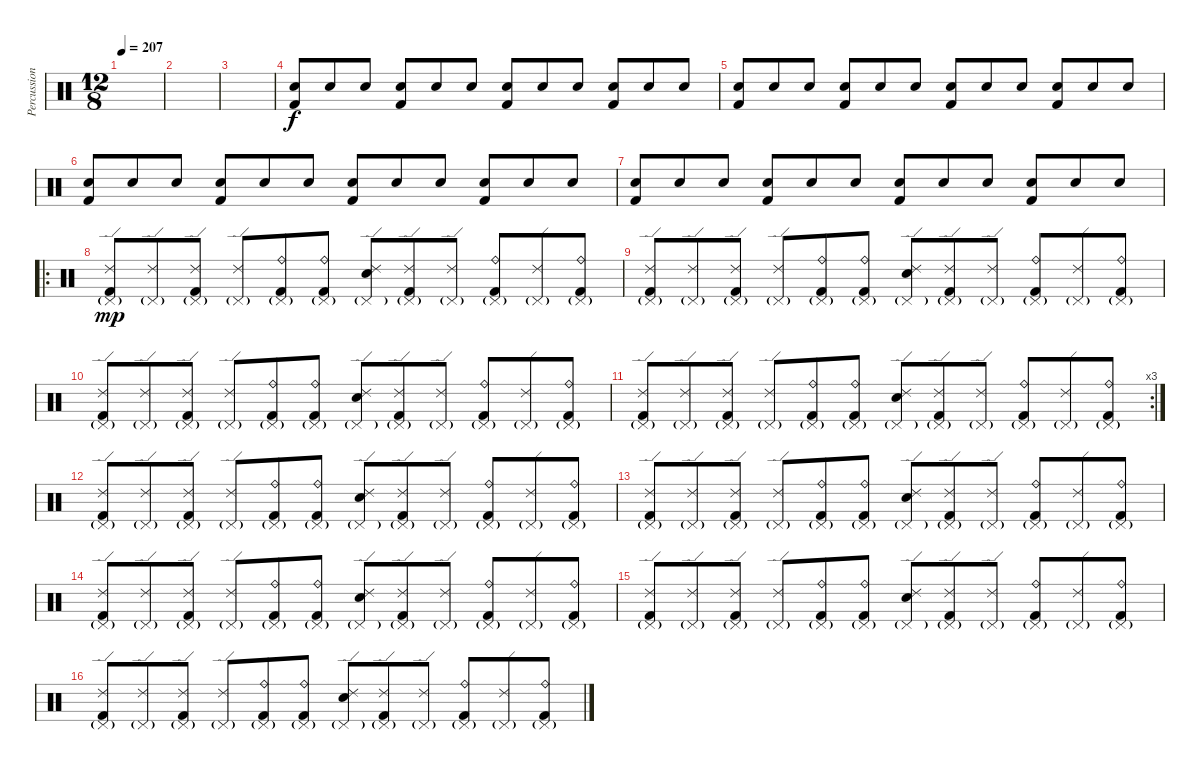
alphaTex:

\track ("Percussion" "Percussion") {instrument percussion}
\staff {score}
\articulation defaults
\ts (12 8)
\tempo 207
\clef neutral
\ks c
|
|
|
("Electric Snare (hit)" "Kick (hit) 2").8 "Electric Snare (hit)".8 "Electric Snare (hit)".8 ("Electric Snare (hit)" "Kick (hit) 2").8 "Electric Snare (hit)".8 "Electric Snare (hit)".8 ("Electric Snare (hit)" "Kick (hit) 2").8 "Electric Snare (hit)".8 "Electric Snare (hit)".8 ("Electric Snare (hit)" "Kick (hit) 2").8 "Electric Snare (hit)".8 "Electric Snare (hit)".8 |
("Electric Snare (hit)" "Kick (hit) 2").8 "Electric Snare (hit)".8 "Electric Snare (hit)".8 ("Electric Snare (hit)" "Kick (hit) 2").8 "Electric Snare (hit)".8 "Electric Snare (hit)".8 ("Electric Snare (hit)" "Kick (hit) 2").8 "Electric Snare (hit)".8 "Electric Snare (hit)".8 ("Electric Snare (hit)" "Kick (hit) 2").8 "Electric Snare (hit)".8 "Electric Snare (hit)".8 |
("Electric Snare (hit)" "Kick (hit) 2").8 "Electric Snare (hit)".8 "Electric Snare (hit)".8 ("Electric Snare (hit)" "Kick (hit) 2").8 "Electric Snare (hit)".8 "Electric Snare (hit)".8 ("Electric Snare (hit)" "Kick (hit) 2").8 "Electric Snare (hit)".8 "Electric Snare (hit)".8 ("Electric Snare (hit)" "Kick (hit) 2").8 "Electric Snare (hit)".8 "Electric Snare (hit)".8 |
("Electric Snare (hit)" "Kick (hit) 2").8 "Electric Snare (hit)".8 "Electric Snare (hit)".8 ("Electric Snare (hit)" "Kick (hit) 2").8 "Electric Snare (hit)".8 "Electric Snare (hit)".8 ("Electric Snare (hit)" "Kick (hit) 2").8 "Electric Snare (hit)".8 "Electric Snare (hit)".8 ("Electric Snare (hit)" "Kick (hit) 2").8 "Electric Snare (hit)".8 "Electric Snare (hit)".8 |
\ro
("Ride (edge) 2" "Pedal Hi-Hat (hit)"{g} "Kick (hit) 2").8{dy mp} ("Ride (edge) 2" "Pedal Hi-Hat (hit)"{g}).8 ("Ride (edge) 2" "Pedal Hi-Hat (hit)"{g} "Kick (hit) 2").8 ("Ride (edge) 2" "Pedal Hi-Hat (hit)"{g}).8 ("Ride (bell)" "Pedal Hi-Hat (hit)"{g} "Kick (hit) 2").8 ("Ride (bell)" "Pedal Hi-Hat (hit)"{g} "Kick (hit) 2").8 ("Ride (edge) 2" "Pedal Hi-Hat (hit)"{g} "Electric Snare (hit)").8 ("Ride (edge) 2" "Pedal Hi-Hat (hit)"{g} "Kick (hit) 2").8 ("Ride (edge) 2" "Pedal Hi-Hat (hit)"{g}).8 ("Ride (bell)" "Pedal Hi-Hat (hit)"{g} "Kick (hit) 2").8 ("Ride (edge) 2" "Pedal Hi-Hat (hit)"{g}).8 ("Ride (bell)" "Pedal Hi-Hat (hit)"{g} "Kick (hit) 2").8 |
("Ride (edge) 2" "Pedal Hi-Hat (hit)"{g} "Kick (hit) 2").8 ("Ride (edge) 2" "Pedal Hi-Hat (hit)"{g}).8 ("Ride (edge) 2" "Pedal Hi-Hat (hit)"{g} "Kick (hit) 2").8 ("Ride (edge) 2" "Pedal Hi-Hat (hit)"{g}).8 ("Ride (bell)" "Pedal Hi-Hat (hit)"{g} "Kick (hit) 2").8 ("Ride (bell)" "Pedal Hi-Hat (hit)"{g} "Kick (hit) 2").8 ("Ride (edge) 2" "Pedal Hi-Hat (hit)"{g} "Electric Snare (hit)").8 ("Ride (edge) 2" "Pedal Hi-Hat (hit)"{g} "Kick (hit) 2").8 ("Ride (edge) 2" "Pedal Hi-Hat (hit)"{g}).8 ("Ride (bell)" "Pedal Hi-Hat (hit)"{g} "Kick (hit) 2").8 ("Ride (edge) 2" "Pedal Hi-Hat (hit)"{g}).8 ("Ride (bell)" "Pedal Hi-Hat (hit)"{g} "Kick (hit) 2").8 |
("Ride (edge) 2" "Pedal Hi-Hat (hit)"{g} "Kick (hit) 2").8 ("Ride (edge) 2" "Pedal Hi-Hat (hit)"{g}).8 ("Ride (edge) 2" "Pedal Hi-Hat (hit)"{g} "Kick (hit) 2").8 ("Ride (edge) 2" "Pedal Hi-Hat (hit)"{g}).8 ("Ride (bell)" "Pedal Hi-Hat (hit)"{g} "Kick (hit) 2").8 ("Ride (bell)" "Pedal Hi-Hat (hit)"{g} "Kick (hit) 2").8 ("Ride (edge) 2" "Pedal Hi-Hat (hit)"{g} "Electric Snare (hit)").8 ("Ride (edge) 2" "Pedal Hi-Hat (hit)"{g} "Kick (hit) 2").8 ("Ride (edge) 2" "Pedal Hi-Hat (hit)"{g}).8 ("Ride (bell)" "Pedal Hi-Hat (hit)"{g} "Kick (hit) 2").8 ("Ride (edge) 2" "Pedal Hi-Hat (hit)"{g}).8 ("Ride (bell)" "Pedal Hi-Hat (hit)"{g} "Kick (hit) 2").8 |
\rc 3
("Ride (edge) 2" "Pedal Hi-Hat (hit)"{g} "Kick (hit) 2").8 ("Ride (edge) 2" "Pedal Hi-Hat (hit)"{g}).8 ("Ride (edge) 2" "Pedal Hi-Hat (hit)"{g} "Kick (hit) 2").8 ("Ride (edge) 2" "Pedal Hi-Hat (hit)"{g}).8 ("Ride (bell)" "Pedal Hi-Hat (hit)"{g} "Kick (hit) 2").8 ("Ride (bell)" "Pedal Hi-Hat (hit)"{g} "Kick (hit) 2").8 ("Ride (edge) 2" "Pedal Hi-Hat (hit)"{g} "Electric Snare (hit)").8 ("Ride (edge) 2" "Pedal Hi-Hat (hit)"{g} "Kick (hit) 2").8 ("Ride (edge) 2" "Pedal Hi-Hat (hit)"{g}).8 ("Ride (bell)" "Pedal Hi-Hat (hit)"{g} "Kick (hit) 2").8 ("Ride (edge) 2" "Pedal Hi-Hat (hit)"{g}).8 ("Ride (bell)" "Pedal Hi-Hat (hit)"{g} "Kick (hit) 2").8 |
("Ride (edge) 2" "Pedal Hi-Hat (hit)"{g} "Kick (hit) 2").8 ("Ride (edge) 2" "Pedal Hi-Hat (hit)"{g}).8 ("Ride (edge) 2" "Pedal Hi-Hat (hit)"{g} "Kick (hit) 2").8 ("Ride (edge) 2" "Pedal Hi-Hat (hit)"{g}).8 ("Ride (bell)" "Pedal Hi-Hat (hit)"{g} "Kick (hit) 2").8 ("Ride (bell)" "Pedal Hi-Hat (hit)"{g} "Kick (hit) 2").8 ("Ride (edge) 2" "Pedal Hi-Hat (hit)"{g} "Electric Snare (hit)").8 ("Ride (edge) 2" "Pedal Hi-Hat (hit)"{g} "Kick (hit) 2").8 ("Ride (edge) 2" "Pedal Hi-Hat (hit)"{g}).8 ("Ride (bell)" "Pedal Hi-Hat (hit)"{g} "Kick (hit) 2").8 ("Ride (edge) 2" "Pedal Hi-Hat (hit)"{g}).8 ("Ride (bell)" "Pedal Hi-Hat (hit)"{g} "Kick (hit) 2").8 |
("Ride (edge) 2" "Pedal Hi-Hat (hit)"{g} "Kick (hit) 2").8 ("Ride (edge) 2" "Pedal Hi-Hat (hit)"{g}).8 ("Ride (edge) 2" "Pedal Hi-Hat (hit)"{g} "Kick (hit) 2").8 ("Ride (edge) 2" "Pedal Hi-Hat (hit)"{g}).8 ("Ride (bell)" "Pedal Hi-Hat (hit)"{g} "Kick (hit) 2").8 ("Ride (bell)" "Pedal Hi-Hat (hit)"{g} "Kick (hit) 2").8 ("Ride (edge) 2" "Pedal Hi-Hat (hit)"{g} "Electric Snare (hit)").8 ("Ride (edge) 2" "Pedal Hi-Hat (hit)"{g} "Kick (hit) 2").8 ("Ride (edge) 2" "Pedal Hi-Hat (hit)"{g}).8 ("Ride (bell)" "Pedal Hi-Hat (hit)"{g} "Kick (hit) 2").8 ("Ride (edge) 2" "Pedal Hi-Hat (hit)"{g}).8 ("Ride (bell)" "Pedal Hi-Hat (hit)"{g} "Kick (hit) 2").8 |
("Ride (edge) 2" "Pedal Hi-Hat (hit)"{g} "Kick (hit) 2").8 ("Ride (edge) 2" "Pedal Hi-Hat (hit)"{g}).8 ("Ride (edge) 2" "Pedal Hi-Hat (hit)"{g} "Kick (hit) 2").8 ("Ride (edge) 2" "Pedal Hi-Hat (hit)"{g}).8 ("Ride (bell)" "Pedal Hi-Hat (hit)"{g} "Kick (hit) 2").8 ("Ride (bell)" "Pedal Hi-Hat (hit)"{g} "Kick (hit) 2").8 ("Ride (edge) 2" "Pedal Hi-Hat (hit)"{g} "Electric Snare (hit)").8 ("Ride (edge) 2" "Pedal Hi-Hat (hit)"{g} "Kick (hit) 2").8 ("Ride (edge) 2" "Pedal Hi-Hat (hit)"{g}).8 ("Ride (bell)" "Pedal Hi-Hat (hit)"{g} "Kick (hit) 2").8 ("Ride (edge) 2" "Pedal Hi-Hat (hit)"{g}).8 ("Ride (bell)" "Pedal Hi-Hat (hit)"{g} "Kick (hit) 2").8 |
("Ride (edge) 2" "Pedal Hi-Hat (hit)"{g} "Kick (hit) 2").8 ("Ride (edge) 2" "Pedal Hi-Hat (hit)"{g}).8 ("Ride (edge) 2" "Pedal Hi-Hat (hit)"{g} "Kick (hit) 2").8 ("Ride (edge) 2" "Pedal Hi-Hat (hit)"{g}).8 ("Ride (bell)" "Pedal Hi-Hat (hit)"{g} "Kick (hit) 2").8 ("Ride (bell)" "Pedal Hi-Hat (hit)"{g} "Kick (hit) 2").8 ("Ride (edge) 2" "Pedal Hi-Hat (hit)"{g} "Electric Snare (hit)").8 ("Ride (edge) 2" "Pedal Hi-Hat (hit)"{g} "Kick (hit) 2").8 ("Ride (edge) 2" "Pedal Hi-Hat (hit)"{g}).8 ("Ride (bell)" "Pedal Hi-Hat (hit)"{g} "Kick (hit) 2").8 ("Ride (edge) 2" "Pedal Hi-Hat (hit)"{g}).8 ("Ride (bell)" "Pedal Hi-Hat (hit)"{g} "Kick (hit) 2").8 |
("Ride (edge) 2" "Pedal Hi-Hat (hit)"{g} "Kick (hit) 2").8 ("Ride (edge) 2" "Pedal Hi-Hat (hit)"{g}).8 ("Ride (edge) 2" "Pedal Hi-Hat (hit)"{g} "Kick (hit) 2").8 ("Ride (edge) 2" "Pedal Hi-Hat (hit)"{g}).8 ("Ride (bell)" "Pedal Hi-Hat (hit)"{g} "Kick (hit) 2").8 ("Ride (bell)" "Pedal Hi-Hat (hit)"{g} "Kick (hit) 2").8 ("Ride (edge) 2" "Pedal Hi-Hat (hit)"{g} "Electric Snare (hit)").8 ("Ride (edge) 2" "Pedal Hi-Hat (hit)"{g} "Kick (hit) 2").8 ("Ride (edge) 2" "Pedal Hi-Hat (hit)"{g}).8 ("Ride (bell)" "Pedal Hi-Hat (hit)"{g} "Kick (hit) 2").8 ("Ride (edge) 2" "Pedal Hi-Hat (hit)"{g}).8 ("Ride (bell)" "Pedal Hi-Hat (hit)"{g} "Kick (hit) 2").8
